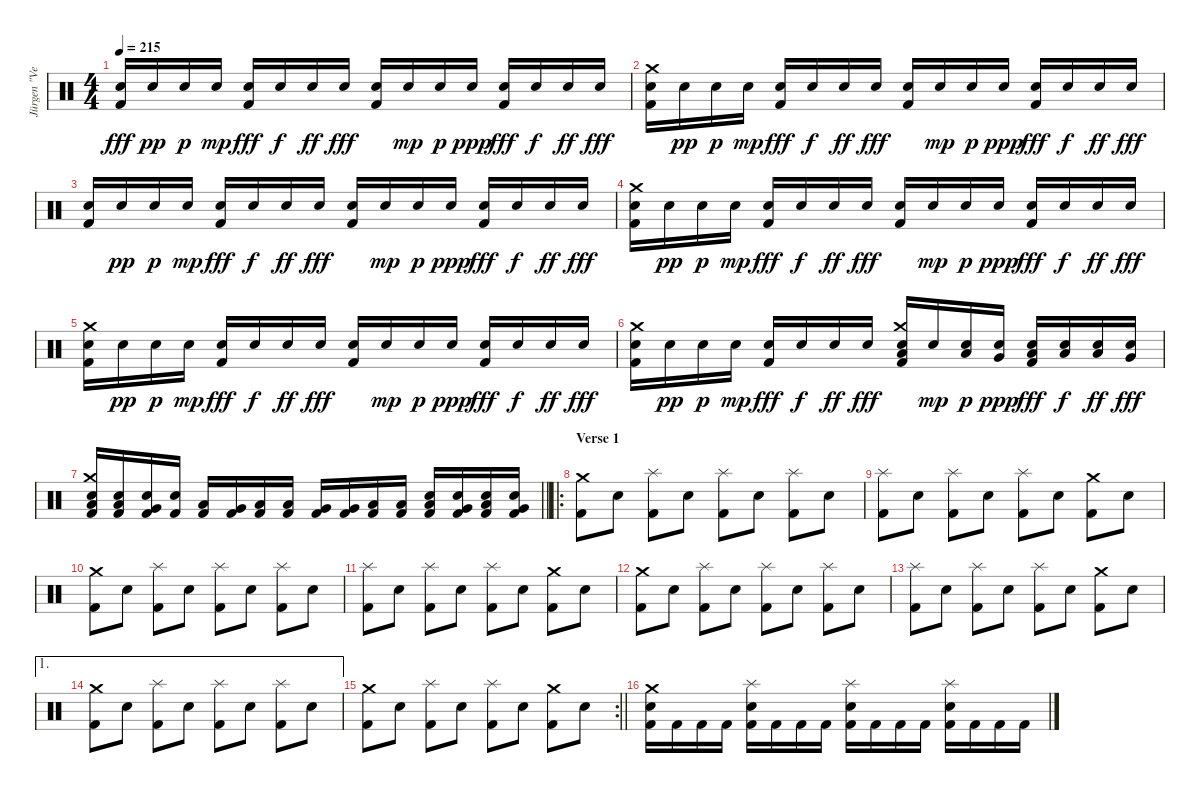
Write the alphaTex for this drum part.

\track ("Jürgen \"Ventor\" Reil" "Jürgen \"Ve") {instrument percussion}
\staff {score}
\articulation defaults
\ts (4 4)
\tempo 215
\clef neutral
\ks c
("Electric Snare (hit)" "Kick (hit) 2").16{dy fff} "Electric Snare (hit)".16{dy pp} "Electric Snare (hit)".16{dy p} "Electric Snare (hit)".16{dy mp} ("Electric Snare (hit)" "Kick (hit) 2").16{dy fff} "Electric Snare (hit)".16{dy f} "Electric Snare (hit)".16{dy ff} "Electric Snare (hit)".16{dy fff} ("Electric Snare (hit)" "Kick (hit) 2").16 "Electric Snare (hit)".16{dy mp} "Electric Snare (hit)".16{dy p} "Electric Snare (hit)".16{dy ppp} ("Electric Snare (hit)" "Kick (hit) 2").16{dy fff} "Electric Snare (hit)".16{dy f} "Electric Snare (hit)".16{dy ff} "Electric Snare (hit)".16{dy fff} |
("Crash medium (hit)" "Electric Snare (hit)" "Kick (hit) 2").16 "Electric Snare (hit)".16{dy pp} "Electric Snare (hit)".16{dy p} "Electric Snare (hit)".16{dy mp} ("Electric Snare (hit)" "Kick (hit) 2").16{dy fff} "Electric Snare (hit)".16{dy f} "Electric Snare (hit)".16{dy ff} "Electric Snare (hit)".16{dy fff} ("Electric Snare (hit)" "Kick (hit) 2").16 "Electric Snare (hit)".16{dy mp} "Electric Snare (hit)".16{dy p} "Electric Snare (hit)".16{dy ppp} ("Electric Snare (hit)" "Kick (hit) 2").16{dy fff} "Electric Snare (hit)".16{dy f} "Electric Snare (hit)".16{dy ff} "Electric Snare (hit)".16{dy fff} |
("Electric Snare (hit)" "Kick (hit) 2").16 "Electric Snare (hit)".16{dy pp} "Electric Snare (hit)".16{dy p} "Electric Snare (hit)".16{dy mp} ("Electric Snare (hit)" "Kick (hit) 2").16{dy fff} "Electric Snare (hit)".16{dy f} "Electric Snare (hit)".16{dy ff} "Electric Snare (hit)".16{dy fff} ("Electric Snare (hit)" "Kick (hit) 2").16 "Electric Snare (hit)".16{dy mp} "Electric Snare (hit)".16{dy p} "Electric Snare (hit)".16{dy ppp} ("Electric Snare (hit)" "Kick (hit) 2").16{dy fff} "Electric Snare (hit)".16{dy f} "Electric Snare (hit)".16{dy ff} "Electric Snare (hit)".16{dy fff} |
("Crash medium (hit)" "Electric Snare (hit)" "Kick (hit) 2").16 "Electric Snare (hit)".16{dy pp} "Electric Snare (hit)".16{dy p} "Electric Snare (hit)".16{dy mp} ("Electric Snare (hit)" "Kick (hit) 2").16{dy fff} "Electric Snare (hit)".16{dy f} "Electric Snare (hit)".16{dy ff} "Electric Snare (hit)".16{dy fff} ("Electric Snare (hit)" "Kick (hit) 2").16 "Electric Snare (hit)".16{dy mp} "Electric Snare (hit)".16{dy p} "Electric Snare (hit)".16{dy ppp} ("Electric Snare (hit)" "Kick (hit) 2").16{dy fff} "Electric Snare (hit)".16{dy f} "Electric Snare (hit)".16{dy ff} "Electric Snare (hit)".16{dy fff} |
("Crash medium (hit)" "Electric Snare (hit)" "Kick (hit) 2").16 "Electric Snare (hit)".16{dy pp} "Electric Snare (hit)".16{dy p} "Electric Snare (hit)".16{dy mp} ("Electric Snare (hit)" "Kick (hit) 2").16{dy fff} "Electric Snare (hit)".16{dy f} "Electric Snare (hit)".16{dy ff} "Electric Snare (hit)".16{dy fff} ("Electric Snare (hit)" "Kick (hit) 2").16 "Electric Snare (hit)".16{dy mp} "Electric Snare (hit)".16{dy p} "Electric Snare (hit)".16{dy ppp} ("Electric Snare (hit)" "Kick (hit) 2").16{dy fff} "Electric Snare (hit)".16{dy f} "Electric Snare (hit)".16{dy ff} "Electric Snare (hit)".16{dy fff} |
("Crash medium (hit)" "Electric Snare (hit)" "Kick (hit) 2").16 "Electric Snare (hit)".16{dy pp} "Electric Snare (hit)".16{dy p} "Electric Snare (hit)".16{dy mp} ("Electric Snare (hit)" "Kick (hit) 2").16{dy fff} "Electric Snare (hit)".16{dy f} "Electric Snare (hit)".16{dy ff} "Electric Snare (hit)".16{dy fff} ("Crash medium (hit)" "Electric Snare (hit)" "Low Tom (hit)" "Kick (hit) 2").16 "Electric Snare (hit)".16{dy mp} ("Electric Snare (hit)" "Low Tom (hit)").16{dy p} ("Electric Snare (hit)" "Very Low Tom (hit)").16{dy ppp} ("Electric Snare (hit)" "Low Tom (hit)" "Kick (hit) 2").16{dy fff} ("Electric Snare (hit)" "Low Floor Tom (hit)").16{dy f} ("Electric Snare (hit)" "Low Tom (hit)").16{dy ff} ("Electric Snare (hit)" "Very Low Tom (hit)").16{dy fff} |
\barLineRight lightlight
("Crash medium (hit)" "Electric Snare (hit)" "Low Floor Tom (hit)" "Kick (hit) 2").16 ("Electric Snare (hit)" "Low Tom (hit)" "Kick (hit) 2").16 ("Electric Snare (hit)" "Very Low Tom (hit)" "Kick (hit) 2").16 ("Electric Snare (hit)" "Kick (hit) 2").16 ("Low Tom (hit)" "Kick (hit) 2").16 ("Very Low Tom (hit)" "Kick (hit) 2").16 ("Low Floor Tom (hit)" "Kick (hit) 2").16 ("Low Tom (hit)" "Kick (hit) 2").16 ("Very Low Tom (hit)" "Kick (hit) 2").16 ("Very Low Tom (hit)" "Kick (hit) 2").16 ("Low Tom (hit)" "Kick (hit) 2").16 ("Low Floor Tom (hit)" "Kick (hit) 2").16 ("Low Tom (hit)" "Electric Snare (hit)" "Kick (hit) 2").16 ("Very Low Tom (hit)" "Electric Snare (hit)" "Kick (hit) 2").16 ("Low Floor Tom (hit)" "Electric Snare (hit)" "Kick (hit) 2").16 ("Very Low Tom (hit)" "Electric Snare (hit)" "Kick (hit) 2").16 |
\ro
\section ("" "Verse 1")
("Crash medium (hit)" "Kick (hit) 2").8 "Electric Snare (hit)".8 ("Splash (hit)" "Kick (hit) 2").8 "Electric Snare (hit)".8 ("Splash (hit)" "Kick (hit) 2").8 "Electric Snare (hit)".8 ("Splash (hit)" "Kick (hit) 2").8 "Electric Snare (hit)".8 |
("Splash (hit)" "Kick (hit) 2").8 "Electric Snare (hit)".8 ("Splash (hit)" "Kick (hit) 2").8 "Electric Snare (hit)".8 ("Splash (hit)" "Kick (hit) 2").8 "Electric Snare (hit)".8 ("Crash medium (hit)" "Kick (hit) 2").8 "Electric Snare (hit)".8 |
("Crash medium (hit)" "Kick (hit) 2").8 "Electric Snare (hit)".8 ("Splash (hit)" "Kick (hit) 2").8 "Electric Snare (hit)".8 ("Splash (hit)" "Kick (hit) 2").8 "Electric Snare (hit)".8 ("Splash (hit)" "Kick (hit) 2").8 "Electric Snare (hit)".8 |
("Splash (hit)" "Kick (hit) 2").8 "Electric Snare (hit)".8 ("Splash (hit)" "Kick (hit) 2").8 "Electric Snare (hit)".8 ("Splash (hit)" "Kick (hit) 2").8 "Electric Snare (hit)".8 ("Crash medium (hit)" "Kick (hit) 2").8 "Electric Snare (hit)".8 |
("Crash medium (hit)" "Kick (hit) 2").8 "Electric Snare (hit)".8 ("Splash (hit)" "Kick (hit) 2").8 "Electric Snare (hit)".8 ("Splash (hit)" "Kick (hit) 2").8 "Electric Snare (hit)".8 ("Splash (hit)" "Kick (hit) 2").8 "Electric Snare (hit)".8 |
("Splash (hit)" "Kick (hit) 2").8 "Electric Snare (hit)".8 ("Splash (hit)" "Kick (hit) 2").8 "Electric Snare (hit)".8 ("Splash (hit)" "Kick (hit) 2").8 "Electric Snare (hit)".8 ("Crash medium (hit)" "Kick (hit) 2").8 "Electric Snare (hit)".8 |
\ae 1
("Crash medium (hit)" "Kick (hit) 2").8 "Electric Snare (hit)".8 ("Splash (hit)" "Kick (hit) 2").8 "Electric Snare (hit)".8 ("Splash (hit)" "Kick (hit) 2").8 "Electric Snare (hit)".8 ("Splash (hit)" "Kick (hit) 2").8 "Electric Snare (hit)".8 |
\rc 2
\barLineRight lightlight
("Crash medium (hit)" "Kick (hit) 2").8 "Electric Snare (hit)".8 ("Splash (hit)" "Kick (hit) 2").8 "Electric Snare (hit)".8 ("Splash (hit)" "Kick (hit) 2").8 "Electric Snare (hit)".8 ("Crash medium (hit)" "Kick (hit) 2").8 "Electric Snare (hit)".8 |
("Crash medium (hit)" "Electric Snare (hit)" "Kick (hit) 2").16 "Kick (hit) 2".16 "Kick (hit) 2".16 "Kick (hit) 2".16 ("Splash (hit)" "Electric Snare (hit)" "Kick (hit) 2").16 "Kick (hit) 2".16 "Kick (hit) 2".16 "Kick (hit) 2".16 ("Splash (hit)" "Electric Snare (hit)" "Kick (hit) 2").16 "Kick (hit) 2".16 "Kick (hit) 2".16 "Kick (hit) 2".16 ("Splash (hit)" "Electric Snare (hit)" "Kick (hit) 2").16 "Kick (hit) 2".16 "Kick (hit) 2".16 "Kick (hit) 2".16
